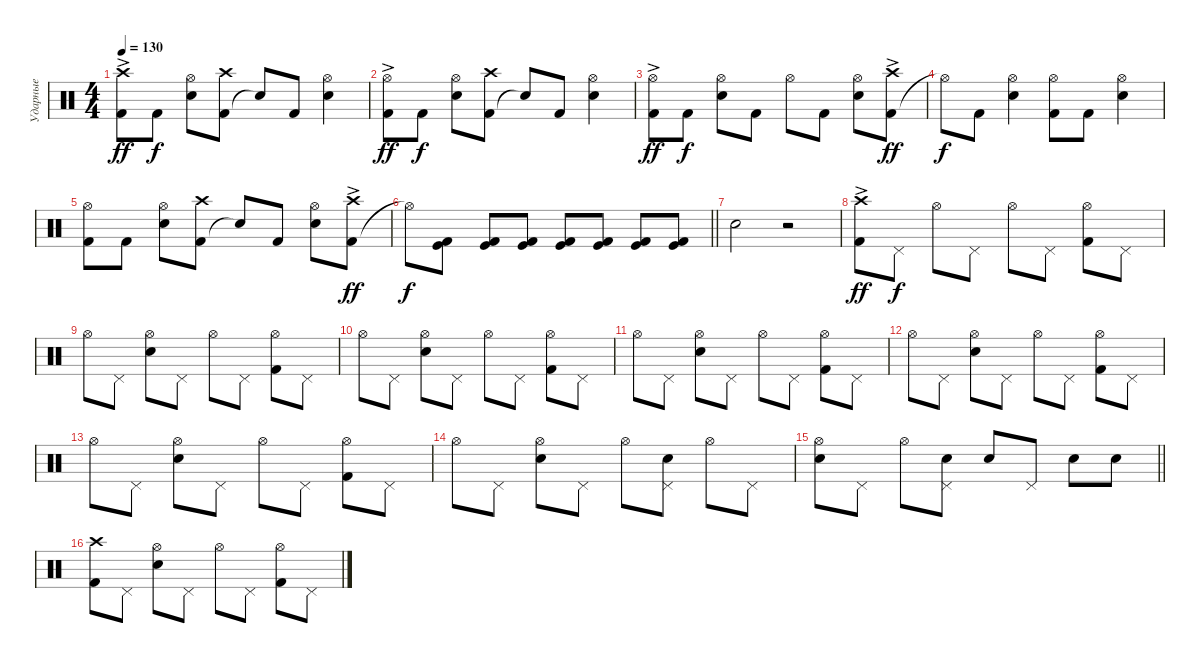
\track ("Ударные" "Ударные") {instrument percussion}
\staff {score}
\articulation defaults
\ts (4 4)
\tempo 130
\clef neutral
\ks c
("Kick (hit) 2" "Crash high (hit)"{ac}).8{dy ff} "Kick (hit) 2".8{dy f} ("Snare (hit) 2" "Hi-Hat (open)").8 ("Kick (hit) 2" "Crash high (hit)").8 "Snare (hit)"{t}.8 "Kick (hit) 2".8 ("Snare (hit) 2" "Hi-Hat (open)").4 |
("Kick (hit) 2" "Hi-Hat (open)"{ac}).8{dy ff} "Kick (hit) 2".8{dy f} ("Snare (hit) 2" "Hi-Hat (open)").8 ("Kick (hit) 2" "Crash high (hit)").8 "Snare (hit)"{t}.8 "Kick (hit) 2".8 ("Snare (hit) 2" "Hi-Hat (open)").4 |
("Kick (hit) 2" "Hi-Hat (open)"{ac}).8{dy ff} "Kick (hit) 2".8{dy f} ("Snare (hit) 2" "Hi-Hat (open)").8 "Kick (hit) 2".8 "Hi-Hat (open)".8 "Kick (hit) 2".8 ("Snare (hit) 2" "Hi-Hat (open)").8 ("Kick (hit) 2" "Crash high (hit)"{ac}).8{dy ff} |
"Hi-Hat (open)"{t}.8{dy f} "Kick (hit) 2".8 ("Snare (hit) 2" "Hi-Hat (open)").4 ("Kick (hit) 2" "Hi-Hat (open)").8 "Kick (hit) 2".8 ("Snare (hit) 2" "Hi-Hat (open)").4 |
("Kick (hit) 2" "Hi-Hat (open)").8 "Kick (hit) 2".8 ("Snare (hit) 2" "Hi-Hat (open)").8 ("Kick (hit) 2" "Crash high (hit)").8 "Snare (hit)"{t}.8 "Kick (hit) 2".8 ("Snare (hit) 2" "Hi-Hat (open)").8 ("Kick (hit) 2" "Crash high (hit)"{ac}).8{dy ff} |
\barLineRight lightlight "Hi-Hat (open)"{t}.8{dy f}
("Kick (hit) 2" "Kick (hit)").8 ("Kick (hit) 2" "Kick (hit)").8 ("Kick (hit) 2" "Kick (hit)").8 ("Kick (hit) 2" "Kick (hit)").8 ("Kick (hit) 2" "Kick (hit)").8 ("Kick (hit) 2" "Kick (hit)").8 ("Kick (hit) 2" "Kick (hit)").8 |
"Snare (hit) 2".2 r.2 |
("Kick (hit) 2" "Crash high (hit)"{ac}).8{dy ff} "Pedal Hi-Hat (hit)".8{dy f} "Hi-Hat (open)".8 "Pedal Hi-Hat (hit)".8 "Hi-Hat (open)".8 "Pedal Hi-Hat (hit)".8 ("Kick (hit) 2" "Hi-Hat (open)").8 "Pedal Hi-Hat (hit)".8 |
"Hi-Hat (open)".8 "Pedal Hi-Hat (hit)".8 ("Snare (hit) 2" "Hi-Hat (open)").8 "Pedal Hi-Hat (hit)".8 "Hi-Hat (open)".8 "Pedal Hi-Hat (hit)".8 ("Kick (hit) 2" "Hi-Hat (open)").8 "Pedal Hi-Hat (hit)".8 |
"Hi-Hat (open)".8 "Pedal Hi-Hat (hit)".8 ("Snare (hit) 2" "Hi-Hat (open)").8 "Pedal Hi-Hat (hit)".8 "Hi-Hat (open)".8 "Pedal Hi-Hat (hit)".8 ("Kick (hit) 2" "Hi-Hat (open)").8 "Pedal Hi-Hat (hit)".8 |
"Hi-Hat (open)".8 "Pedal Hi-Hat (hit)".8 ("Snare (hit) 2" "Hi-Hat (open)").8 "Pedal Hi-Hat (hit)".8 "Hi-Hat (open)".8 "Pedal Hi-Hat (hit)".8 ("Kick (hit) 2" "Hi-Hat (open)").8 "Pedal Hi-Hat (hit)".8 |
"Hi-Hat (open)".8 "Pedal Hi-Hat (hit)".8 ("Snare (hit) 2" "Hi-Hat (open)").8 "Pedal Hi-Hat (hit)".8 "Hi-Hat (open)".8 "Pedal Hi-Hat (hit)".8 ("Kick (hit) 2" "Hi-Hat (open)").8 "Pedal Hi-Hat (hit)".8 |
"Hi-Hat (open)".8 "Pedal Hi-Hat (hit)".8 ("Snare (hit) 2" "Hi-Hat (open)").8 "Pedal Hi-Hat (hit)".8 "Hi-Hat (open)".8 "Pedal Hi-Hat (hit)".8 ("Kick (hit) 2" "Hi-Hat (open)").8 "Pedal Hi-Hat (hit)".8 |
"Hi-Hat (open)".8 "Pedal Hi-Hat (hit)".8 ("Snare (hit) 2" "Hi-Hat (open)").8 "Pedal Hi-Hat (hit)".8 "Hi-Hat (open)".8 ("Snare (hit) 2" "Pedal Hi-Hat (hit)").8 "Hi-Hat (open)".8 "Pedal Hi-Hat (hit)".8 |
\barLineRight lightlight
("Snare (hit) 2" "Hi-Hat (open)").8 "Pedal Hi-Hat (hit)".8 "Hi-Hat (open)".8 ("Snare (hit) 2" "Pedal Hi-Hat (hit)").8 "Snare (hit) 2".8 "Pedal Hi-Hat (hit)".8 "Snare (hit) 2".8 "Snare (hit) 2".8 |
("Kick (hit) 2" "Crash high (hit)").8 "Pedal Hi-Hat (hit)".8 ("Snare (hit) 2" "Hi-Hat (open)").8 "Pedal Hi-Hat (hit)".8 "Hi-Hat (open)".8 "Pedal Hi-Hat (hit)".8 ("Kick (hit) 2" "Hi-Hat (open)").8 "Pedal Hi-Hat (hit)".8
